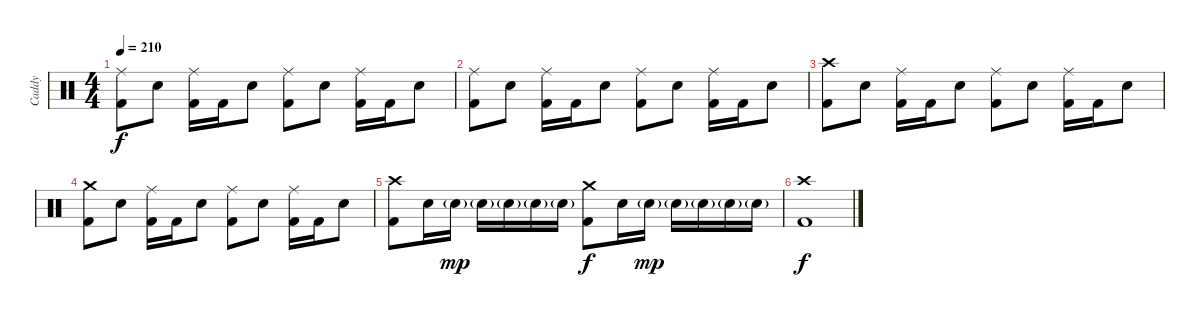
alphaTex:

\track ("Caddy" "Caddy") {instrument percussion}
\staff {score}
\articulation defaults
\ts (4 4)
\tempo 210
\clef neutral
\ks c
("Ride (middle)" "Kick (hit) 2").8{dy f} "Electric Snare (hit)".8 ("Ride (middle)" "Kick (hit) 2").16 "Kick (hit) 2".16 "Electric Snare (hit)".8 ("Ride (middle)" "Kick (hit) 2").8 "Electric Snare (hit)".8 ("Ride (middle)" "Kick (hit) 2").16 "Kick (hit) 2".16 "Electric Snare (hit)".8 |
("Ride (middle)" "Kick (hit) 2").8 "Electric Snare (hit)".8 ("Ride (middle)" "Kick (hit) 2").16 "Kick (hit) 2".16 "Electric Snare (hit)".8 ("Ride (middle)" "Kick (hit) 2").8 "Electric Snare (hit)".8 ("Ride (middle)" "Kick (hit) 2").16 "Kick (hit) 2".16 "Electric Snare (hit)".8 |
("Crash high (hit)" "Kick (hit) 2").8 "Electric Snare (hit)".8 ("Ride (middle)" "Kick (hit) 2").16 "Kick (hit) 2".16 "Electric Snare (hit)".8 ("Ride (middle)" "Kick (hit) 2").8 "Electric Snare (hit)".8 ("Ride (middle)" "Kick (hit) 2").16 "Kick (hit) 2".16 "Electric Snare (hit)".8 |
("Crash medium (hit)" "Kick (hit) 2").8 "Electric Snare (hit)".8 ("Ride (middle)" "Kick (hit) 2").16 "Kick (hit) 2".16 "Electric Snare (hit)".8 ("Ride (middle)" "Kick (hit) 2").8 "Electric Snare (hit)".8 ("Ride (middle)" "Kick (hit) 2").16 "Kick (hit) 2".16 "Electric Snare (hit)".8 |
("Crash high (hit)" "Kick (hit) 2").8 "Electric Snare (hit)".16 "Electric Snare (hit)"{g}.16{dy mp} "Electric Snare (hit)"{g}.16 "Electric Snare (hit)"{g}.16 "Electric Snare (hit)"{g}.16 "Electric Snare (hit)"{g}.16 ("Crash medium (hit)" "Kick (hit) 2").8{dy f} "Electric Snare (hit)".16 "Electric Snare (hit)"{g}.16{dy mp} "Electric Snare (hit)"{g}.16 "Electric Snare (hit)"{g}.16 "Electric Snare (hit)"{g}.16 "Electric Snare (hit)"{g}.16 |
("Crash high (hit)" "Kick (hit) 2").1{dy f}
